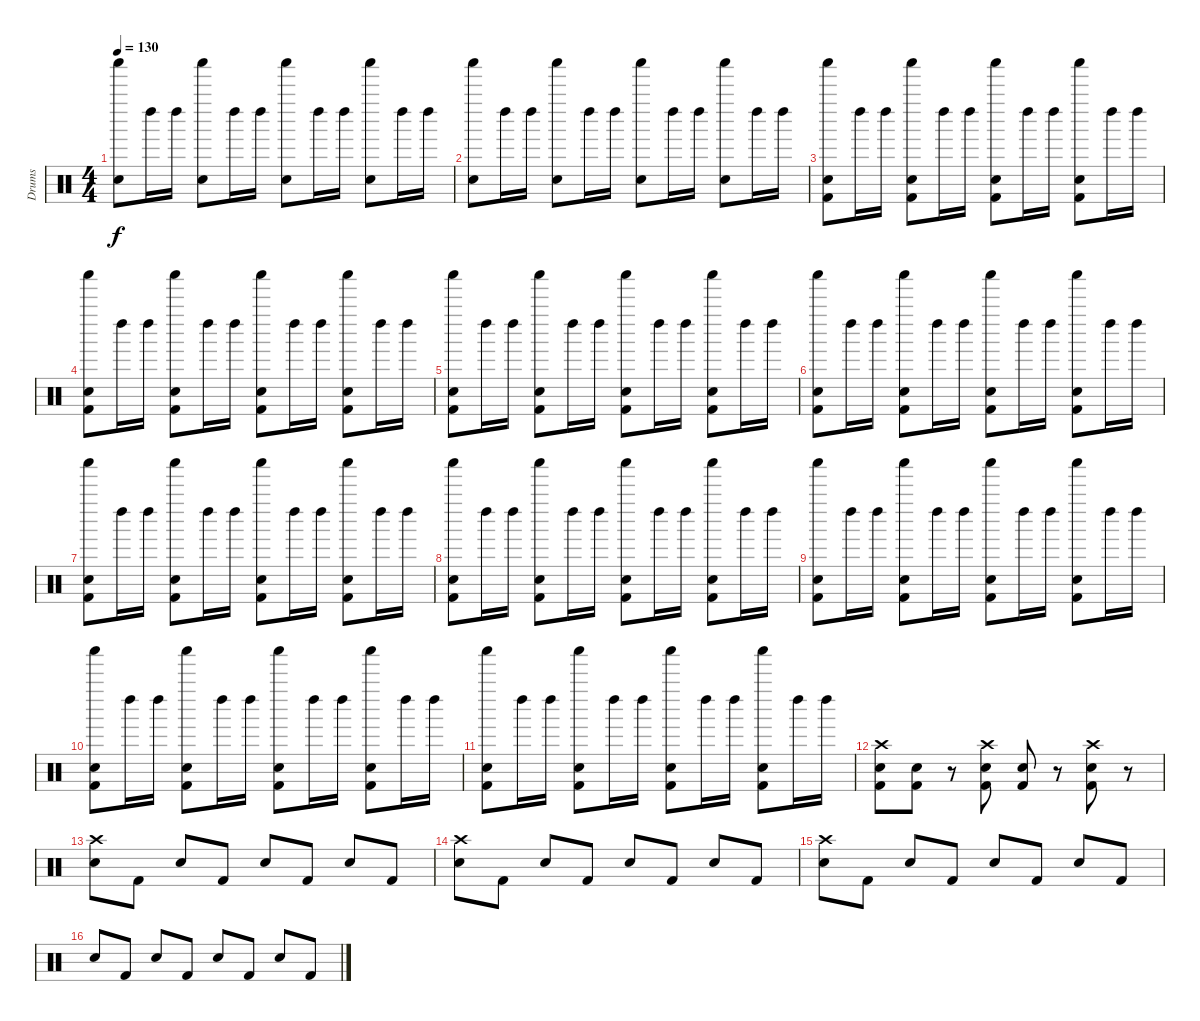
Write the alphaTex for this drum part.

\track ("Drums" "Drums") {instrument percussion}
\staff {score}
\articulation defaults
\ts (4 4)
\tempo 130
\clef neutral
\ks c
("Shaker (hit)" "Electric Snare (hit)").8{dy f} "Left Maraca (hit)".16 "Left Maraca (hit)".16 ("Shaker (hit)" "Electric Snare (hit)").8 "Left Maraca (hit)".16 "Left Maraca (hit)".16 ("Shaker (hit)" "Electric Snare (hit)").8 "Left Maraca (hit)".16 "Left Maraca (hit)".16 ("Shaker (hit)" "Electric Snare (hit)").8 "Left Maraca (hit)".16 "Left Maraca (hit)".16 |
("Shaker (hit)" "Electric Snare (hit)").8 "Left Maraca (hit)".16 "Left Maraca (hit)".16 ("Shaker (hit)" "Electric Snare (hit)").8 "Left Maraca (hit)".16 "Left Maraca (hit)".16 ("Shaker (hit)" "Electric Snare (hit)").8 "Left Maraca (hit)".16 "Left Maraca (hit)".16 ("Shaker (hit)" "Electric Snare (hit)").8 "Left Maraca (hit)".16 "Left Maraca (hit)".16 |
("Shaker (hit)" "Kick (hit) 2" "Electric Snare (hit)").8 "Left Maraca (hit)".16 "Left Maraca (hit)".16 ("Shaker (hit)" "Kick (hit) 2" "Electric Snare (hit)").8 "Left Maraca (hit)".16 "Left Maraca (hit)".16 ("Shaker (hit)" "Kick (hit) 2" "Electric Snare (hit)").8 "Left Maraca (hit)".16 "Left Maraca (hit)".16 ("Shaker (hit)" "Kick (hit) 2" "Electric Snare (hit)").8 "Left Maraca (hit)".16 "Left Maraca (hit)".16 |
("Shaker (hit)" "Kick (hit) 2" "Electric Snare (hit)").8 "Left Maraca (hit)".16 "Left Maraca (hit)".16 ("Shaker (hit)" "Kick (hit) 2" "Electric Snare (hit)").8 "Left Maraca (hit)".16 "Left Maraca (hit)".16 ("Shaker (hit)" "Kick (hit) 2" "Electric Snare (hit)").8 "Left Maraca (hit)".16 "Left Maraca (hit)".16 ("Shaker (hit)" "Kick (hit) 2" "Electric Snare (hit)").8 "Left Maraca (hit)".16 "Left Maraca (hit)".16 |
("Shaker (hit)" "Kick (hit) 2" "Electric Snare (hit)").8 "Left Maraca (hit)".16 "Left Maraca (hit)".16 ("Shaker (hit)" "Kick (hit) 2" "Electric Snare (hit)").8 "Left Maraca (hit)".16 "Left Maraca (hit)".16 ("Shaker (hit)" "Kick (hit) 2" "Electric Snare (hit)").8 "Left Maraca (hit)".16 "Left Maraca (hit)".16 ("Shaker (hit)" "Kick (hit) 2" "Electric Snare (hit)").8 "Left Maraca (hit)".16 "Left Maraca (hit)".16 |
("Shaker (hit)" "Kick (hit) 2" "Electric Snare (hit)").8 "Left Maraca (hit)".16 "Left Maraca (hit)".16 ("Shaker (hit)" "Kick (hit) 2" "Electric Snare (hit)").8 "Left Maraca (hit)".16 "Left Maraca (hit)".16 ("Shaker (hit)" "Kick (hit) 2" "Electric Snare (hit)").8 "Left Maraca (hit)".16 "Left Maraca (hit)".16 ("Shaker (hit)" "Kick (hit) 2" "Electric Snare (hit)").8 "Left Maraca (hit)".16 "Left Maraca (hit)".16 |
("Shaker (hit)" "Kick (hit) 2" "Electric Snare (hit)").8 "Left Maraca (hit)".16 "Left Maraca (hit)".16 ("Shaker (hit)" "Kick (hit) 2" "Electric Snare (hit)").8 "Left Maraca (hit)".16 "Left Maraca (hit)".16 ("Shaker (hit)" "Kick (hit) 2" "Electric Snare (hit)").8 "Left Maraca (hit)".16 "Left Maraca (hit)".16 ("Shaker (hit)" "Kick (hit) 2" "Electric Snare (hit)").8 "Left Maraca (hit)".16 "Left Maraca (hit)".16 |
("Shaker (hit)" "Kick (hit) 2" "Electric Snare (hit)").8 "Left Maraca (hit)".16 "Left Maraca (hit)".16 ("Shaker (hit)" "Kick (hit) 2" "Electric Snare (hit)").8 "Left Maraca (hit)".16 "Left Maraca (hit)".16 ("Shaker (hit)" "Kick (hit) 2" "Electric Snare (hit)").8 "Left Maraca (hit)".16 "Left Maraca (hit)".16 ("Shaker (hit)" "Kick (hit) 2" "Electric Snare (hit)").8 "Left Maraca (hit)".16 "Left Maraca (hit)".16 |
("Shaker (hit)" "Kick (hit) 2" "Electric Snare (hit)").8 "Left Maraca (hit)".16 "Left Maraca (hit)".16 ("Shaker (hit)" "Kick (hit) 2" "Electric Snare (hit)").8 "Left Maraca (hit)".16 "Left Maraca (hit)".16 ("Shaker (hit)" "Kick (hit) 2" "Electric Snare (hit)").8 "Left Maraca (hit)".16 "Left Maraca (hit)".16 ("Shaker (hit)" "Kick (hit) 2" "Electric Snare (hit)").8 "Left Maraca (hit)".16 "Left Maraca (hit)".16 |
("Shaker (hit)" "Kick (hit) 2" "Electric Snare (hit)").8 "Left Maraca (hit)".16 "Left Maraca (hit)".16 ("Shaker (hit)" "Kick (hit) 2" "Electric Snare (hit)").8 "Left Maraca (hit)".16 "Left Maraca (hit)".16 ("Shaker (hit)" "Kick (hit) 2" "Electric Snare (hit)").8 "Left Maraca (hit)".16 "Left Maraca (hit)".16 ("Shaker (hit)" "Kick (hit) 2" "Electric Snare (hit)").8 "Left Maraca (hit)".16 "Left Maraca (hit)".16 |
("Shaker (hit)" "Kick (hit) 2" "Electric Snare (hit)").8 "Left Maraca (hit)".16 "Left Maraca (hit)".16 ("Shaker (hit)" "Kick (hit) 2" "Electric Snare (hit)").8 "Left Maraca (hit)".16 "Left Maraca (hit)".16 ("Shaker (hit)" "Kick (hit) 2" "Electric Snare (hit)").8 "Left Maraca (hit)".16 "Left Maraca (hit)".16 ("Shaker (hit)" "Kick (hit) 2" "Electric Snare (hit)").8 "Left Maraca (hit)".16 "Left Maraca (hit)".16 |
("Crash high (hit)" "Kick (hit) 2" "Electric Snare (hit)").8 ("Kick (hit) 2" "Electric Snare (hit)").8 r.8 ("Crash high (hit)" "Kick (hit) 2" "Electric Snare (hit)").8 ("Kick (hit) 2" "Electric Snare (hit)").8 r.8 ("Crash high (hit)" "Kick (hit) 2" "Electric Snare (hit)").8 r.8 |
("Crash high (hit)" "Electric Snare (hit)").8 "Kick (hit) 2".8 "Electric Snare (hit)".8 "Kick (hit) 2".8 "Electric Snare (hit)".8 "Kick (hit) 2".8 "Electric Snare (hit)".8 "Kick (hit) 2".8 |
("Crash high (hit)" "Electric Snare (hit)").8 "Kick (hit) 2".8 "Electric Snare (hit)".8 "Kick (hit) 2".8 "Electric Snare (hit)".8 "Kick (hit) 2".8 "Electric Snare (hit)".8 "Kick (hit) 2".8 |
("Crash high (hit)" "Electric Snare (hit)").8 "Kick (hit) 2".8 "Electric Snare (hit)".8 "Kick (hit) 2".8 "Electric Snare (hit)".8 "Kick (hit) 2".8 "Electric Snare (hit)".8 "Kick (hit) 2".8 |
"Electric Snare (hit)".8 "Kick (hit) 2".8 "Electric Snare (hit)".8 "Kick (hit) 2".8 "Electric Snare (hit)".8 "Kick (hit) 2".8 "Electric Snare (hit)".8 "Kick (hit) 2".8
